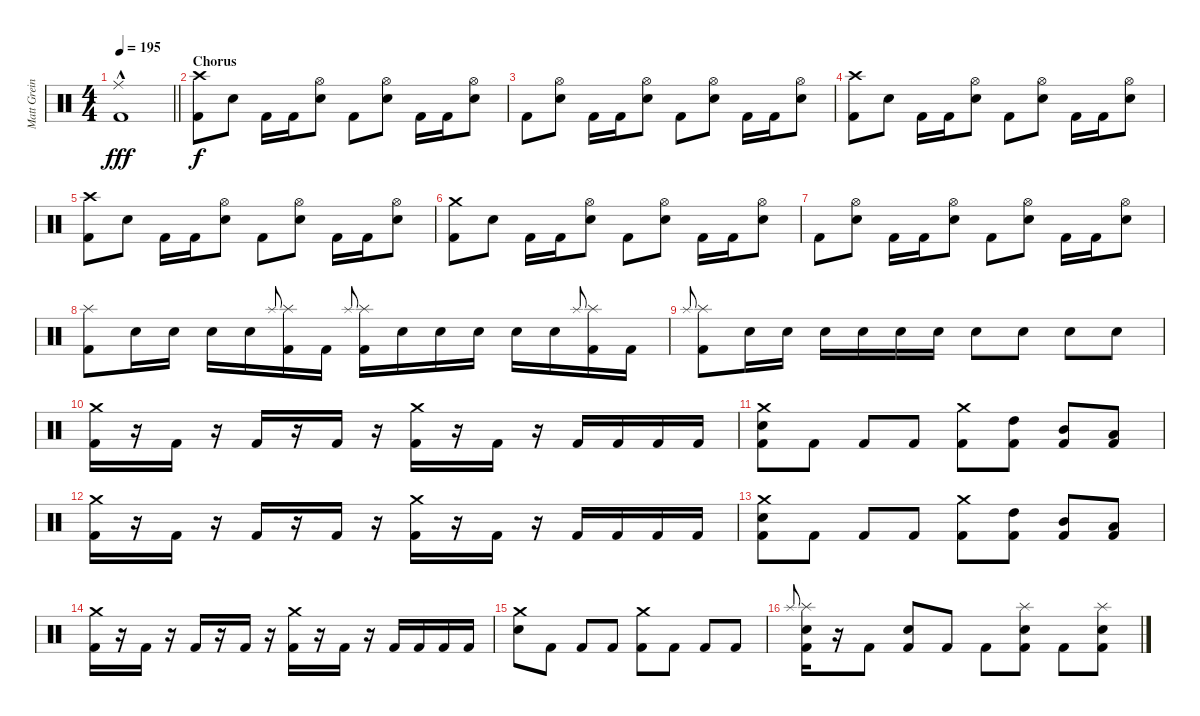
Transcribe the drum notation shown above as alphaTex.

\track ("Matt Greiner" "Matt Grein") {instrument percussion}
\staff {score}
\articulation defaults
\ts (4 4)
\tempo 195
\clef neutral
\barLineRight lightlight
\ks c
("Ride (middle)"{hac} "Kick (hit) 2").1{dy fff} |
\section ("" "Chorus")
("Crash high (hit)" "Kick (hit) 2").8{dy f} "Electric Snare (hit)".8 "Kick (hit) 2".16 "Kick (hit) 2".16 ("Hi-Hat (open)" "Electric Snare (hit)").8 "Kick (hit) 2".8 ("Hi-Hat (open)" "Electric Snare (hit)").8 "Kick (hit) 2".16 "Kick (hit) 2".16 ("Hi-Hat (open)" "Electric Snare (hit)").8 |
"Kick (hit) 2".8 ("Hi-Hat (open)" "Electric Snare (hit)").8 "Kick (hit) 2".16 "Kick (hit) 2".16 ("Hi-Hat (open)" "Electric Snare (hit)").8 "Kick (hit) 2".8 ("Hi-Hat (open)" "Electric Snare (hit)").8 "Kick (hit) 2".16 "Kick (hit) 2".16 ("Hi-Hat (open)" "Electric Snare (hit)").8 |
("Crash high (hit)" "Kick (hit) 2").8 "Electric Snare (hit)".8 "Kick (hit) 2".16 "Kick (hit) 2".16 ("Hi-Hat (open)" "Electric Snare (hit)").8 "Kick (hit) 2".8 ("Hi-Hat (open)" "Electric Snare (hit)").8 "Kick (hit) 2".16 "Kick (hit) 2".16 ("Hi-Hat (open)" "Electric Snare (hit)").8 |
("Crash high (hit)" "Kick (hit) 2").8 "Electric Snare (hit)".8 "Kick (hit) 2".16 "Kick (hit) 2".16 ("Hi-Hat (open)" "Electric Snare (hit)").8 "Kick (hit) 2".8 ("Hi-Hat (open)" "Electric Snare (hit)").8 "Kick (hit) 2".16 "Kick (hit) 2".16 ("Hi-Hat (open)" "Electric Snare (hit)").8 |
("Crash medium (hit)" "Kick (hit) 2").8 "Electric Snare (hit)".8 "Kick (hit) 2".16 "Kick (hit) 2".16 ("Hi-Hat (open)" "Electric Snare (hit)").8 "Kick (hit) 2".8 ("Hi-Hat (open)" "Electric Snare (hit)").8 "Kick (hit) 2".16 "Kick (hit) 2".16 ("Hi-Hat (open)" "Electric Snare (hit)").8 |
"Kick (hit) 2".8 ("Hi-Hat (open)" "Electric Snare (hit)").8 "Kick (hit) 2".16 "Kick (hit) 2".16 ("Hi-Hat (open)" "Electric Snare (hit)").8 "Kick (hit) 2".8 ("Hi-Hat (open)" "Electric Snare (hit)").8 "Kick (hit) 2".16 "Kick (hit) 2".16 ("Hi-Hat (open)" "Electric Snare (hit)").8 |
("Splash (hit)" "Kick (hit) 2").8 "Electric Snare (hit)".16 "Electric Snare (hit)".16 "Electric Snare (hit)".16 "Electric Snare (hit)".16 "Splash (hit)".8{gr onbeat} ("Splash (hit)" "Kick (hit) 2").16 "Kick (hit) 2".16 "Splash (hit)".8{gr onbeat} ("Splash (hit)" "Kick (hit) 2").16 "Electric Snare (hit)".16 "Electric Snare (hit)".16 "Electric Snare (hit)".16 "Electric Snare (hit)".16 "Electric Snare (hit)".16 "Splash (hit)".8{gr onbeat} ("Splash (hit)" "Kick (hit) 2").16 "Kick (hit) 2".16 |
"Splash (hit)".8{gr onbeat} ("Splash (hit)" "Kick (hit) 2").8 "Electric Snare (hit)".16 "Electric Snare (hit)".16 "Electric Snare (hit)".16 "Electric Snare (hit)".16 "Electric Snare (hit)".16 "Electric Snare (hit)".16 "Electric Snare (hit)".8 "Electric Snare (hit)".8 "Electric Snare (hit)".8 "Electric Snare (hit)".8 |
("Crash medium (hit)" "Kick (hit) 2").16 r.16 "Kick (hit) 2".16 r.16 "Kick (hit) 2".16 r.16 "Kick (hit) 2".16 r.16 ("Crash medium (hit)" "Kick (hit) 2").16 r.16 "Kick (hit) 2".16 r.16 "Kick (hit) 2".16 "Kick (hit) 2".16 "Kick (hit) 2".16 "Kick (hit) 2".16 |
("Crash medium (hit)" "Electric Snare (hit)" "Kick (hit) 2").8 "Kick (hit) 2".8 "Kick (hit) 2".8 "Kick (hit) 2".8 ("Crash medium (hit)" "Kick (hit) 2").8 ("High Tom (hit)" "Kick (hit) 2").8 ("Mid Tom (hit)" "Kick (hit) 2").8 ("Low Tom (hit)" "Kick (hit) 2").8 |
("Crash medium (hit)" "Kick (hit) 2").16 r.16 "Kick (hit) 2".16 r.16 "Kick (hit) 2".16 r.16 "Kick (hit) 2".16 r.16 ("Crash medium (hit)" "Kick (hit) 2").16 r.16 "Kick (hit) 2".16 r.16 "Kick (hit) 2".16 "Kick (hit) 2".16 "Kick (hit) 2".16 "Kick (hit) 2".16 |
("Crash medium (hit)" "Electric Snare (hit)" "Kick (hit) 2").8 "Kick (hit) 2".8 "Kick (hit) 2".8 "Kick (hit) 2".8 ("Crash medium (hit)" "Kick (hit) 2").8 ("High Tom (hit)" "Kick (hit) 2").8 ("Mid Tom (hit)" "Kick (hit) 2").8 ("Low Tom (hit)" "Kick (hit) 2").8 |
("Crash medium (hit)" "Kick (hit) 2").16 r.16 "Kick (hit) 2".16 r.16 "Kick (hit) 2".16 r.16 "Kick (hit) 2".16 r.16 ("Crash medium (hit)" "Kick (hit) 2").16 r.16 "Kick (hit) 2".16 r.16 "Kick (hit) 2".16 "Kick (hit) 2".16 "Kick (hit) 2".16 "Kick (hit) 2".16 |
("Crash medium (hit)" "Electric Snare (hit)").8 "Kick (hit) 2".8 "Kick (hit) 2".8 "Kick (hit) 2".8 ("Crash medium (hit)" "Kick (hit) 2").8 "Kick (hit) 2".8 "Kick (hit) 2".8 "Kick (hit) 2".8 |
"Splash (hit)".8{gr onbeat} ("Splash (hit)" "Electric Snare (hit)" "Kick (hit) 2").16 r.16 "Kick (hit) 2".8 ("Electric Snare (hit)" "Kick (hit) 2").8 "Kick (hit) 2".8 "Kick (hit) 2".8 ("Splash (hit)" "Electric Snare (hit)" "Kick (hit) 2").8 "Kick (hit) 2".8 ("Splash (hit)" "Electric Snare (hit)" "Kick (hit) 2").8
